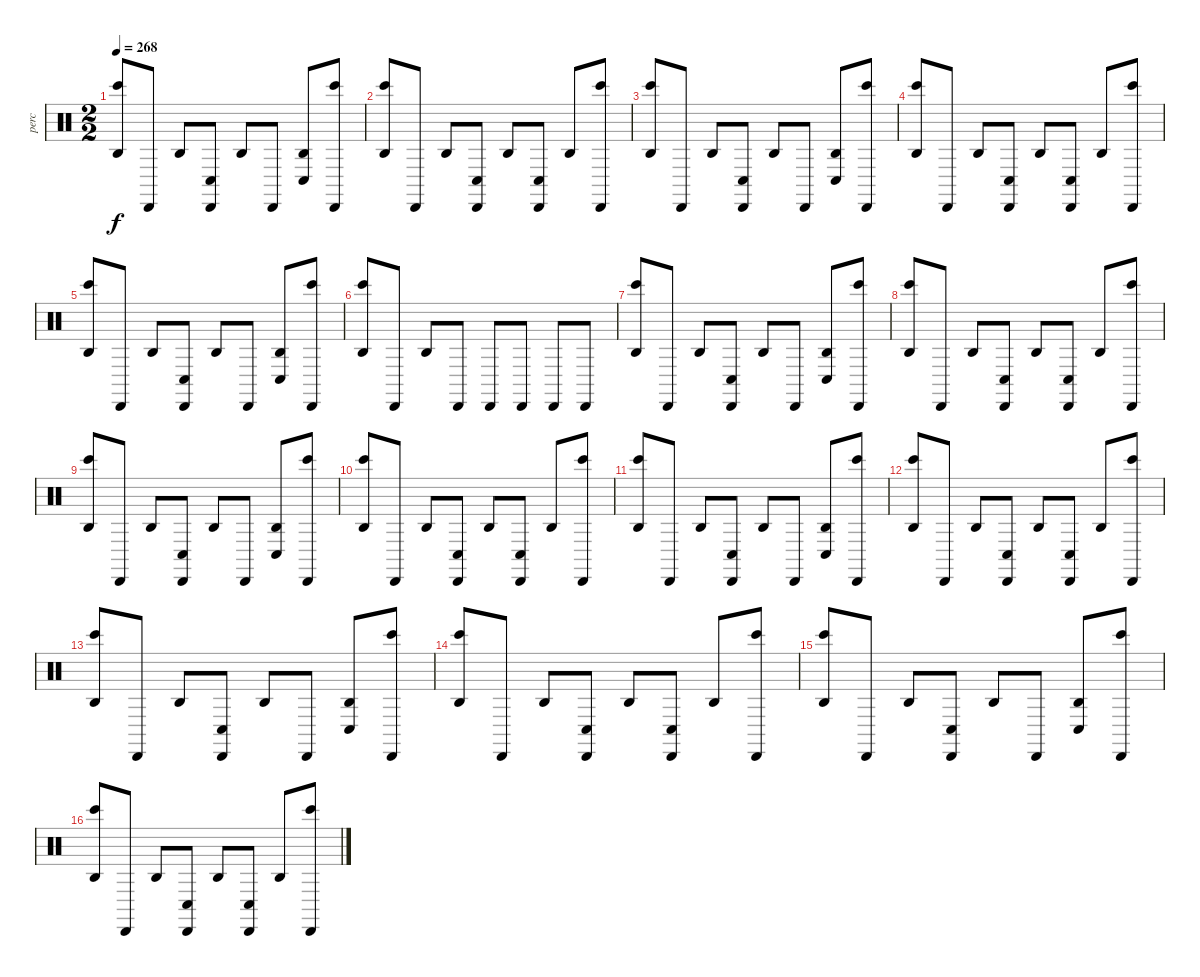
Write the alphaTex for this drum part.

\track ("perc" "perc") {instrument percussion}
\staff {score}
\articulation defaults
\ts (2 2)
\tempo 268
\clef neutral
\ks c
("Bongo High (hit)" "Agogo high (hit)").8{dy f} "Cabasa (hit)".8 "Agogo high (hit)".8 ("Conga low (hit)" "Cabasa (hit)").8 "Agogo high (hit)".8 "Cabasa (hit)".8 ("Conga low (hit)" "Agogo high (hit)").8 ("Bongo High (hit)" "Cabasa (hit)").8 |
("Bongo High (hit)" "Agogo high (hit)").8 "Cabasa (hit)".8 "Agogo high (hit)".8 ("Conga low (hit)" "Cabasa (hit)").8 "Agogo high (hit)".8 ("Conga low (hit)" "Cabasa (hit)").8 "Agogo high (hit)".8 ("Bongo High (hit)" "Cabasa (hit)").8 |
("Bongo High (hit)" "Agogo high (hit)").8 "Cabasa (hit)".8 "Agogo high (hit)".8 ("Conga low (hit)" "Cabasa (hit)").8 "Agogo high (hit)".8 "Cabasa (hit)".8 ("Conga low (hit)" "Agogo high (hit)").8 ("Bongo High (hit)" "Cabasa (hit)").8 |
("Bongo High (hit)" "Agogo high (hit)").8 "Cabasa (hit)".8 "Agogo high (hit)".8 ("Conga low (hit)" "Cabasa (hit)").8 "Agogo high (hit)".8 ("Conga low (hit)" "Cabasa (hit)").8 "Agogo high (hit)".8 ("Bongo High (hit)" "Cabasa (hit)").8 |
("Bongo High (hit)" "Agogo high (hit)").8 "Cabasa (hit)".8 "Agogo high (hit)".8 ("Conga low (hit)" "Cabasa (hit)").8 "Agogo high (hit)".8 "Cabasa (hit)".8 ("Conga low (hit)" "Agogo high (hit)").8 ("Bongo High (hit)" "Cabasa (hit)").8 |
("Bongo High (hit)" "Agogo high (hit)").8 "Cabasa (hit)".8 "Agogo high (hit)".8 "Cabasa (hit)".8 "Cabasa (hit)".8 "Cabasa (hit)".8 "Cabasa (hit)".8 "Cabasa (hit)".8 |
("Bongo High (hit)" "Agogo high (hit)").8 "Cabasa (hit)".8 "Agogo high (hit)".8 ("Conga low (hit)" "Cabasa (hit)").8 "Agogo high (hit)".8 "Cabasa (hit)".8 ("Conga low (hit)" "Agogo high (hit)").8 ("Bongo High (hit)" "Cabasa (hit)").8 |
("Bongo High (hit)" "Agogo high (hit)").8 "Cabasa (hit)".8 "Agogo high (hit)".8 ("Conga low (hit)" "Cabasa (hit)").8 "Agogo high (hit)".8 ("Conga low (hit)" "Cabasa (hit)").8 "Agogo high (hit)".8 ("Bongo High (hit)" "Cabasa (hit)").8 |
("Bongo High (hit)" "Agogo high (hit)").8 "Cabasa (hit)".8 "Agogo high (hit)".8 ("Conga low (hit)" "Cabasa (hit)").8 "Agogo high (hit)".8 "Cabasa (hit)".8 ("Conga low (hit)" "Agogo high (hit)").8 ("Bongo High (hit)" "Cabasa (hit)").8 |
("Bongo High (hit)" "Agogo high (hit)").8 "Cabasa (hit)".8 "Agogo high (hit)".8 ("Conga low (hit)" "Cabasa (hit)").8 "Agogo high (hit)".8 ("Conga low (hit)" "Cabasa (hit)").8 "Agogo high (hit)".8 ("Bongo High (hit)" "Cabasa (hit)").8 |
("Bongo High (hit)" "Agogo high (hit)").8 "Cabasa (hit)".8 "Agogo high (hit)".8 ("Conga low (hit)" "Cabasa (hit)").8 "Agogo high (hit)".8 "Cabasa (hit)".8 ("Conga low (hit)" "Agogo high (hit)").8 ("Bongo High (hit)" "Cabasa (hit)").8 |
("Bongo High (hit)" "Agogo high (hit)").8 "Cabasa (hit)".8 "Agogo high (hit)".8 ("Conga low (hit)" "Cabasa (hit)").8 "Agogo high (hit)".8 ("Conga low (hit)" "Cabasa (hit)").8 "Agogo high (hit)".8 ("Bongo High (hit)" "Cabasa (hit)").8 |
("Bongo High (hit)" "Agogo high (hit)").8 "Cabasa (hit)".8 "Agogo high (hit)".8 ("Conga low (hit)" "Cabasa (hit)").8 "Agogo high (hit)".8 "Cabasa (hit)".8 ("Conga low (hit)" "Agogo high (hit)").8 ("Bongo High (hit)" "Cabasa (hit)").8 |
("Bongo High (hit)" "Agogo high (hit)").8 "Cabasa (hit)".8 "Agogo high (hit)".8 ("Conga low (hit)" "Cabasa (hit)").8 "Agogo high (hit)".8 ("Conga low (hit)" "Cabasa (hit)").8 "Agogo high (hit)".8 ("Bongo High (hit)" "Cabasa (hit)").8 |
("Bongo High (hit)" "Agogo high (hit)").8 "Cabasa (hit)".8 "Agogo high (hit)".8 ("Conga low (hit)" "Cabasa (hit)").8 "Agogo high (hit)".8 "Cabasa (hit)".8 ("Conga low (hit)" "Agogo high (hit)").8 ("Bongo High (hit)" "Cabasa (hit)").8 |
("Bongo High (hit)" "Agogo high (hit)").8 "Cabasa (hit)".8 "Agogo high (hit)".8 ("Conga low (hit)" "Cabasa (hit)").8 "Agogo high (hit)".8 ("Conga low (hit)" "Cabasa (hit)").8 "Agogo high (hit)".8 ("Bongo High (hit)" "Cabasa (hit)").8
